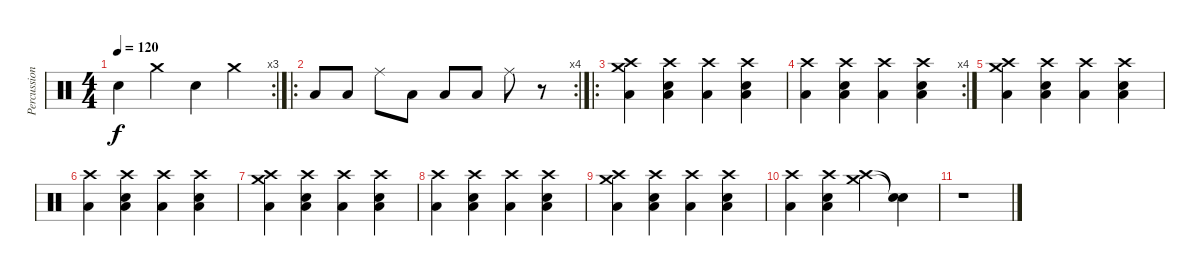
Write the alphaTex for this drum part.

\track ("Percussions" "Percussion") {instrument percussion}
\staff {score}
\articulation defaults
\rc 3
\ts (4 4)
\tempo 120
\clef neutral
\ks c "Electric Snare (hit)".4{dy f} "Crash medium (hit)".4 "Electric Snare (hit)".4 "Crash medium (hit)".4
|
\ro
\rc 4 "Low Floor Tom (hit)".8 "Low Floor Tom (hit)".8 "Ride (middle)".8 "Low Tom (hit)".8 "Low Floor Tom (hit)".8 "Low Floor Tom (hit)".8 "Ride (middle)".8
r.8 |
\ro
("Low Floor Tom (hit)" "Crash high (hit)" "Crash medium (hit)").4 ("Low Floor Tom (hit)" "Electric Snare (hit)" "Crash high (hit)").4 ("Low Floor Tom (hit)" "Crash high (hit)").4 ("Low Floor Tom (hit)" "Electric Snare (hit)" "Crash high (hit)").4 |
\rc 4
("Low Floor Tom (hit)" "Crash high (hit)").4 ("Low Floor Tom (hit)" "Electric Snare (hit)" "Crash high (hit)").4 ("Low Floor Tom (hit)" "Crash high (hit)").4 ("Low Floor Tom (hit)" "Electric Snare (hit)" "Crash high (hit)").4 |
("Low Floor Tom (hit)" "Crash high (hit)" "Crash medium (hit)").4 ("Low Floor Tom (hit)" "Electric Snare (hit)" "Crash high (hit)").4 ("Low Floor Tom (hit)" "Crash high (hit)").4 ("Low Floor Tom (hit)" "Electric Snare (hit)" "Crash high (hit)").4 |
("Low Floor Tom (hit)" "Crash high (hit)").4 ("Low Floor Tom (hit)" "Electric Snare (hit)" "Crash high (hit)").4 ("Low Floor Tom (hit)" "Crash high (hit)").4 ("Low Floor Tom (hit)" "Electric Snare (hit)" "Crash high (hit)").4 |
("Low Floor Tom (hit)" "Crash high (hit)" "Crash medium (hit)").4 ("Low Floor Tom (hit)" "Electric Snare (hit)" "Crash high (hit)").4 ("Low Floor Tom (hit)" "Crash high (hit)").4 ("Low Floor Tom (hit)" "Electric Snare (hit)" "Crash high (hit)").4 |
("Low Floor Tom (hit)" "Crash high (hit)").4 ("Low Floor Tom (hit)" "Electric Snare (hit)" "Crash high (hit)").4 ("Low Floor Tom (hit)" "Crash high (hit)").4 ("Low Floor Tom (hit)" "Electric Snare (hit)" "Crash high (hit)").4 |
("Low Floor Tom (hit)" "Crash high (hit)" "Crash medium (hit)").4 ("Low Floor Tom (hit)" "Electric Snare (hit)" "Crash high (hit)").4 ("Low Floor Tom (hit)" "Crash high (hit)").4 ("Low Floor Tom (hit)" "Electric Snare (hit)" "Crash high (hit)").4 |
("Low Floor Tom (hit)" "Crash high (hit)").4 ("Low Floor Tom (hit)" "Electric Snare (hit)" "Crash high (hit)").4 ("Crash medium (hit)" "Crash high (hit)").4 ("Snare (hit)"{t} "Snare (hit)"{t}).4 |
r.1
